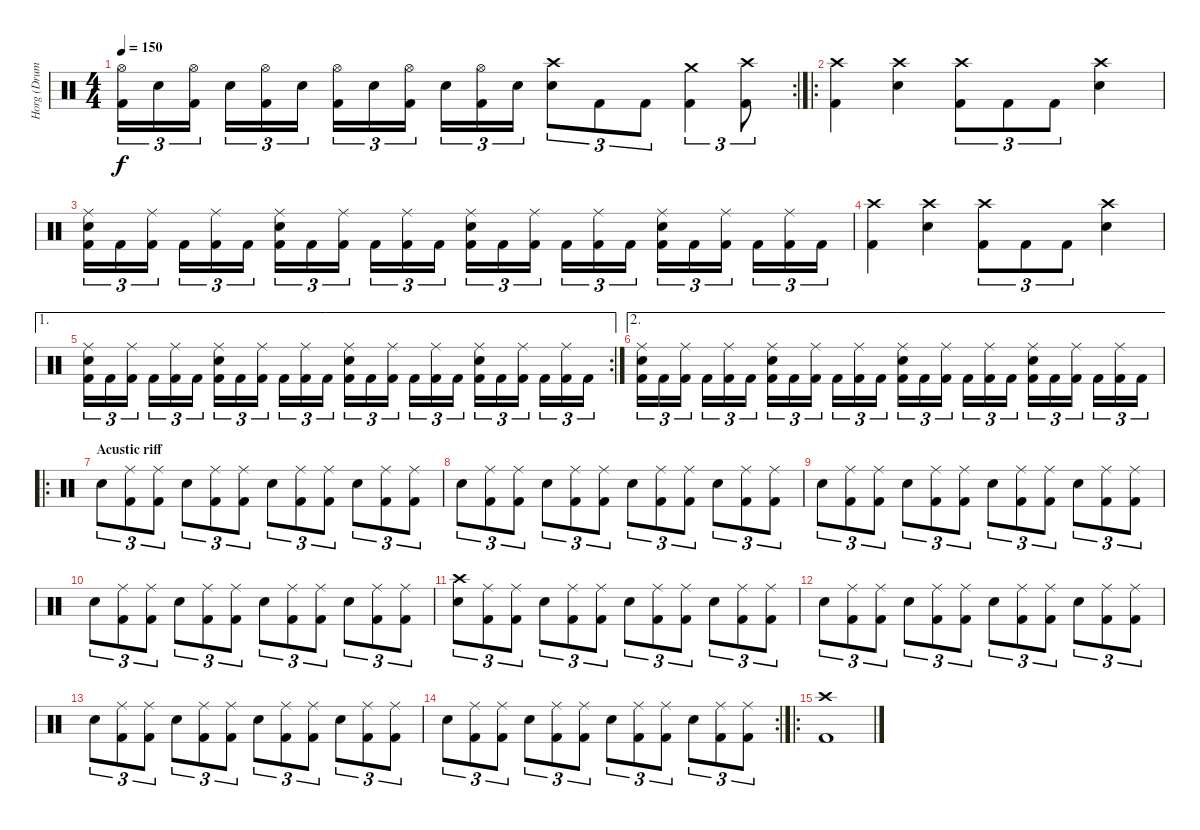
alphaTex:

\track ("Horg (Drums)" "Horg (Drum") {instrument percussion}
\staff {score}
\articulation defaults
\rc 2
\ts (4 4)
\tempo 150
\clef neutral
\ks c
("Hi-Hat (open)" "Kick (hit) 2").16{tu (3 2) dy f} "Electric Snare (hit)".16{tu (3 2)} ("Hi-Hat (open)" "Kick (hit) 2").16{tu (3 2)} "Electric Snare (hit)".16{tu (3 2)} ("Hi-Hat (open)" "Kick (hit) 2").16{tu (3 2)} "Electric Snare (hit)".16{tu (3 2)} ("Hi-Hat (open)" "Kick (hit) 2").16{tu (3 2)} "Electric Snare (hit)".16{tu (3 2)} ("Hi-Hat (open)" "Kick (hit) 2").16{tu (3 2)} "Electric Snare (hit)".16{tu (3 2)} ("Hi-Hat (open)" "Kick (hit) 2").16{tu (3 2)} "Electric Snare (hit)".16{tu (3 2)} ("Crash high (hit)" "Electric Snare (hit)").8{tu (3 2)} "Kick (hit) 2".8{tu (3 2)} "Kick (hit) 2".8{tu (3 2)} ("Crash medium (hit)" "Kick (hit) 2").4{tu (3 2)} ("Crash high (hit)" "Kick (hit) 2").8{tu (3 2)} |
\ro
("Crash high (hit)" "Kick (hit) 2").4 ("Crash high (hit)" "Electric Snare (hit)").4 ("Crash high (hit)" "Kick (hit) 2").8{tu (3 2)} "Kick (hit) 2".8{tu (3 2)} "Kick (hit) 2".8{tu (3 2)} ("Crash high (hit)" "Electric Snare (hit)").4 |
("Ride (middle)" "Electric Snare (hit)" "Kick (hit) 2").16{tu (3 2)} "Kick (hit) 2".16{tu (3 2)} ("Ride (middle)" "Kick (hit) 2").16{tu (3 2)} "Kick (hit) 2".16{tu (3 2)} ("Ride (middle)" "Kick (hit) 2").16{tu (3 2)} "Kick (hit) 2".16{tu (3 2)} ("Ride (middle)" "Electric Snare (hit)" "Kick (hit) 2").16{tu (3 2)} "Kick (hit) 2".16{tu (3 2)} ("Ride (middle)" "Kick (hit) 2").16{tu (3 2)} "Kick (hit) 2".16{tu (3 2)} ("Ride (middle)" "Kick (hit) 2").16{tu (3 2)} "Kick (hit) 2".16{tu (3 2)} ("Ride (middle)" "Electric Snare (hit)" "Kick (hit) 2").16{tu (3 2)} "Kick (hit) 2".16{tu (3 2)} ("Ride (middle)" "Kick (hit) 2").16{tu (3 2)} "Kick (hit) 2".16{tu (3 2)} ("Ride (middle)" "Kick (hit) 2").16{tu (3 2)} "Kick (hit) 2".16{tu (3 2)} ("Ride (middle)" "Electric Snare (hit)" "Kick (hit) 2").16{tu (3 2)} "Kick (hit) 2".16{tu (3 2)} ("Ride (middle)" "Kick (hit) 2").16{tu (3 2)} "Kick (hit) 2".16{tu (3 2)} ("Ride (middle)" "Kick (hit) 2").16{tu (3 2)} "Kick (hit) 2".16{tu (3 2)} |
("Crash high (hit)" "Kick (hit) 2").4 ("Crash high (hit)" "Electric Snare (hit)").4 ("Crash high (hit)" "Kick (hit) 2").8{tu (3 2)} "Kick (hit) 2".8{tu (3 2)} "Kick (hit) 2".8{tu (3 2)} ("Crash high (hit)" "Electric Snare (hit)").4 |
\ae 1
\rc 2
("Ride (middle)" "Electric Snare (hit)" "Kick (hit) 2").16{tu (3 2)} "Kick (hit) 2".16{tu (3 2)} ("Ride (middle)" "Kick (hit) 2").16{tu (3 2)} "Kick (hit) 2".16{tu (3 2)} ("Ride (middle)" "Kick (hit) 2").16{tu (3 2)} "Kick (hit) 2".16{tu (3 2)} ("Ride (middle)" "Electric Snare (hit)" "Kick (hit) 2").16{tu (3 2)} "Kick (hit) 2".16{tu (3 2)} ("Ride (middle)" "Kick (hit) 2").16{tu (3 2)} "Kick (hit) 2".16{tu (3 2)} ("Ride (middle)" "Kick (hit) 2").16{tu (3 2)} "Kick (hit) 2".16{tu (3 2)} ("Ride (middle)" "Electric Snare (hit)" "Kick (hit) 2").16{tu (3 2)} "Kick (hit) 2".16{tu (3 2)} ("Ride (middle)" "Kick (hit) 2").16{tu (3 2)} "Kick (hit) 2".16{tu (3 2)} ("Ride (middle)" "Kick (hit) 2").16{tu (3 2)} "Kick (hit) 2".16{tu (3 2)} ("Ride (middle)" "Electric Snare (hit)" "Kick (hit) 2").16{tu (3 2)} "Kick (hit) 2".16{tu (3 2)} ("Ride (middle)" "Kick (hit) 2").16{tu (3 2)} "Kick (hit) 2".16{tu (3 2)} ("Ride (middle)" "Kick (hit) 2").16{tu (3 2)} "Kick (hit) 2".16{tu (3 2)} |
\ae 2
("Ride (middle)" "Electric Snare (hit)" "Kick (hit) 2").16{tu (3 2)} "Kick (hit) 2".16{tu (3 2)} ("Ride (middle)" "Kick (hit) 2").16{tu (3 2)} "Kick (hit) 2".16{tu (3 2)} ("Ride (middle)" "Kick (hit) 2").16{tu (3 2)} "Kick (hit) 2".16{tu (3 2)} ("Ride (middle)" "Electric Snare (hit)" "Kick (hit) 2").16{tu (3 2)} "Kick (hit) 2".16{tu (3 2)} ("Ride (middle)" "Kick (hit) 2").16{tu (3 2)} "Kick (hit) 2".16{tu (3 2)} ("Ride (middle)" "Kick (hit) 2").16{tu (3 2)} "Kick (hit) 2".16{tu (3 2)} ("Ride (middle)" "Electric Snare (hit)" "Kick (hit) 2").16{tu (3 2)} "Kick (hit) 2".16{tu (3 2)} ("Ride (middle)" "Kick (hit) 2").16{tu (3 2)} "Kick (hit) 2".16{tu (3 2)} ("Ride (middle)" "Kick (hit) 2").16{tu (3 2)} "Kick (hit) 2".16{tu (3 2)} ("Ride (middle)" "Electric Snare (hit)" "Kick (hit) 2").16{tu (3 2)} "Kick (hit) 2".16{tu (3 2)} ("Ride (middle)" "Kick (hit) 2").16{tu (3 2)} "Kick (hit) 2".16{tu (3 2)} ("Ride (middle)" "Kick (hit) 2").16{tu (3 2)} "Kick (hit) 2".16{tu (3 2)} |
\ro
\section ("" "Acustic riff")
"Electric Snare (hit)".8{tu (3 2)} ("Ride (middle)" "Kick (hit) 2").8{tu (3 2)} ("Ride (middle)" "Kick (hit) 2").8{tu (3 2)} "Electric Snare (hit)".8{tu (3 2)} ("Ride (middle)" "Kick (hit) 2").8{tu (3 2)} ("Ride (middle)" "Kick (hit) 2").8{tu (3 2)} "Electric Snare (hit)".8{tu (3 2)} ("Ride (middle)" "Kick (hit) 2").8{tu (3 2)} ("Ride (middle)" "Kick (hit) 2").8{tu (3 2)} "Electric Snare (hit)".8{tu (3 2)} ("Ride (middle)" "Kick (hit) 2").8{tu (3 2)} ("Ride (middle)" "Kick (hit) 2").8{tu (3 2)} |
"Electric Snare (hit)".8{tu (3 2)} ("Ride (middle)" "Kick (hit) 2").8{tu (3 2)} ("Ride (middle)" "Kick (hit) 2").8{tu (3 2)} "Electric Snare (hit)".8{tu (3 2)} ("Ride (middle)" "Kick (hit) 2").8{tu (3 2)} ("Ride (middle)" "Kick (hit) 2").8{tu (3 2)} "Electric Snare (hit)".8{tu (3 2)} ("Ride (middle)" "Kick (hit) 2").8{tu (3 2)} ("Ride (middle)" "Kick (hit) 2").8{tu (3 2)} "Electric Snare (hit)".8{tu (3 2)} ("Ride (middle)" "Kick (hit) 2").8{tu (3 2)} ("Ride (middle)" "Kick (hit) 2").8{tu (3 2)} |
"Electric Snare (hit)".8{tu (3 2)} ("Ride (middle)" "Kick (hit) 2").8{tu (3 2)} ("Ride (middle)" "Kick (hit) 2").8{tu (3 2)} "Electric Snare (hit)".8{tu (3 2)} ("Ride (middle)" "Kick (hit) 2").8{tu (3 2)} ("Ride (middle)" "Kick (hit) 2").8{tu (3 2)} "Electric Snare (hit)".8{tu (3 2)} ("Ride (middle)" "Kick (hit) 2").8{tu (3 2)} ("Ride (middle)" "Kick (hit) 2").8{tu (3 2)} "Electric Snare (hit)".8{tu (3 2)} ("Ride (middle)" "Kick (hit) 2").8{tu (3 2)} ("Ride (middle)" "Kick (hit) 2").8{tu (3 2)} |
"Electric Snare (hit)".8{tu (3 2)} ("Ride (middle)" "Kick (hit) 2").8{tu (3 2)} ("Ride (middle)" "Kick (hit) 2").8{tu (3 2)} "Electric Snare (hit)".8{tu (3 2)} ("Ride (middle)" "Kick (hit) 2").8{tu (3 2)} ("Ride (middle)" "Kick (hit) 2").8{tu (3 2)} "Electric Snare (hit)".8{tu (3 2)} ("Ride (middle)" "Kick (hit) 2").8{tu (3 2)} ("Ride (middle)" "Kick (hit) 2").8{tu (3 2)} "Electric Snare (hit)".8{tu (3 2)} ("Ride (middle)" "Kick (hit) 2").8{tu (3 2)} ("Ride (middle)" "Kick (hit) 2").8{tu (3 2)} |
("Crash high (hit)" "Electric Snare (hit)").8{tu (3 2)} ("Ride (middle)" "Kick (hit) 2").8{tu (3 2)} ("Ride (middle)" "Kick (hit) 2").8{tu (3 2)} "Electric Snare (hit)".8{tu (3 2)} ("Ride (middle)" "Kick (hit) 2").8{tu (3 2)} ("Ride (middle)" "Kick (hit) 2").8{tu (3 2)} "Electric Snare (hit)".8{tu (3 2)} ("Ride (middle)" "Kick (hit) 2").8{tu (3 2)} ("Ride (middle)" "Kick (hit) 2").8{tu (3 2)} "Electric Snare (hit)".8{tu (3 2)} ("Ride (middle)" "Kick (hit) 2").8{tu (3 2)} ("Ride (middle)" "Kick (hit) 2").8{tu (3 2)} |
"Electric Snare (hit)".8{tu (3 2)} ("Ride (middle)" "Kick (hit) 2").8{tu (3 2)} ("Ride (middle)" "Kick (hit) 2").8{tu (3 2)} "Electric Snare (hit)".8{tu (3 2)} ("Ride (middle)" "Kick (hit) 2").8{tu (3 2)} ("Ride (middle)" "Kick (hit) 2").8{tu (3 2)} "Electric Snare (hit)".8{tu (3 2)} ("Ride (middle)" "Kick (hit) 2").8{tu (3 2)} ("Ride (middle)" "Kick (hit) 2").8{tu (3 2)} "Electric Snare (hit)".8{tu (3 2)} ("Ride (middle)" "Kick (hit) 2").8{tu (3 2)} ("Ride (middle)" "Kick (hit) 2").8{tu (3 2)} |
"Electric Snare (hit)".8{tu (3 2)} ("Ride (middle)" "Kick (hit) 2").8{tu (3 2)} ("Ride (middle)" "Kick (hit) 2").8{tu (3 2)} "Electric Snare (hit)".8{tu (3 2)} ("Ride (middle)" "Kick (hit) 2").8{tu (3 2)} ("Ride (middle)" "Kick (hit) 2").8{tu (3 2)} "Electric Snare (hit)".8{tu (3 2)} ("Ride (middle)" "Kick (hit) 2").8{tu (3 2)} ("Ride (middle)" "Kick (hit) 2").8{tu (3 2)} "Electric Snare (hit)".8{tu (3 2)} ("Ride (middle)" "Kick (hit) 2").8{tu (3 2)} ("Ride (middle)" "Kick (hit) 2").8{tu (3 2)} |
\rc 2 "Electric Snare (hit)".8{tu (3 2)}
("Ride (middle)" "Kick (hit) 2").8{tu (3 2)} ("Ride (middle)" "Kick (hit) 2").8{tu (3 2)} "Electric Snare (hit)".8{tu (3 2)} ("Ride (middle)" "Kick (hit) 2").8{tu (3 2)} ("Ride (middle)" "Kick (hit) 2").8{tu (3 2)} "Electric Snare (hit)".8{tu (3 2)} ("Ride (middle)" "Kick (hit) 2").8{tu (3 2)} ("Ride (middle)" "Kick (hit) 2").8{tu (3 2)} "Electric Snare (hit)".8{tu (3 2)} ("Ride (middle)" "Kick (hit) 2").8{tu (3 2)} ("Ride (middle)" "Kick (hit) 2").8{tu (3 2)} |
\ro
("Crash high (hit)" "Kick (hit) 2").1
